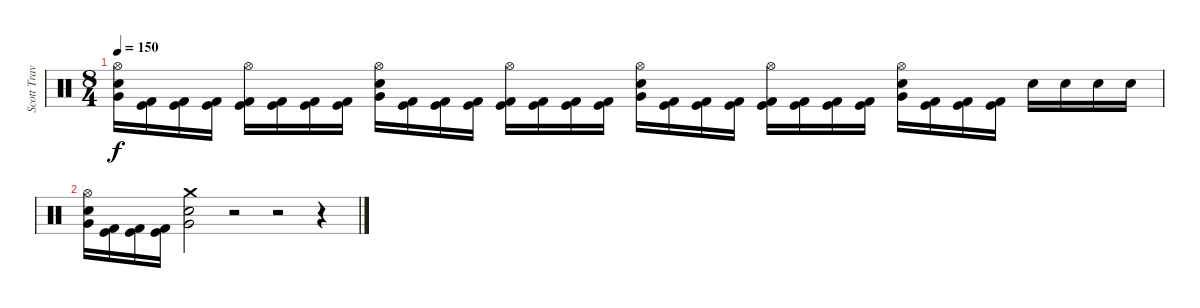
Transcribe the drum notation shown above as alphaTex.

\track ("Scott Travis" "Scott Trav") {instrument percussion}
\staff {score}
\articulation defaults
\ts (8 4)
\tempo 150
\clef neutral
\ks c
("Hi-Hat (open)" "Very Low Tom (hit)" "Electric Snare (hit)").16{dy f} ("Kick (hit)" "Kick (hit) 2").16 ("Kick (hit)" "Kick (hit) 2").16 ("Kick (hit)" "Kick (hit) 2").16 ("Hi-Hat (open)" "Kick (hit)" "Kick (hit) 2").16 ("Kick (hit)" "Kick (hit) 2").16 ("Kick (hit)" "Kick (hit) 2").16 ("Kick (hit)" "Kick (hit) 2").16 ("Hi-Hat (open)" "Very Low Tom (hit)" "Electric Snare (hit)").16 ("Kick (hit)" "Kick (hit) 2").16 ("Kick (hit)" "Kick (hit) 2").16 ("Kick (hit)" "Kick (hit) 2").16 ("Hi-Hat (open)" "Kick (hit)" "Kick (hit) 2").16 ("Kick (hit)" "Kick (hit) 2").16 ("Kick (hit)" "Kick (hit) 2").16 ("Kick (hit)" "Kick (hit) 2").16 ("Hi-Hat (open)" "Very Low Tom (hit)" "Electric Snare (hit)").16 ("Kick (hit)" "Kick (hit) 2").16 ("Kick (hit)" "Kick (hit) 2").16 ("Kick (hit)" "Kick (hit) 2").16 ("Hi-Hat (open)" "Kick (hit)" "Kick (hit) 2").16 ("Kick (hit)" "Kick (hit) 2").16 ("Kick (hit)" "Kick (hit) 2").16 ("Kick (hit)" "Kick (hit) 2").16 ("Hi-Hat (open)" "Very Low Tom (hit)" "Electric Snare (hit)").16 ("Kick (hit)" "Kick (hit) 2").16 ("Kick (hit)" "Kick (hit) 2").16 ("Kick (hit)" "Kick (hit) 2").16 "Electric Snare (hit)".16 "Electric Snare (hit)".16 "Electric Snare (hit)".16 "Electric Snare (hit)".16 |
("Hi-Hat (open)" "Very Low Tom (hit)" "Electric Snare (hit)").16 ("Kick (hit)" "Kick (hit) 2").16 ("Kick (hit)" "Kick (hit) 2").16 ("Kick (hit)" "Kick (hit) 2").16 ("Crash medium (hit)" "Very Low Tom (hit)" "Electric Snare (hit)").2 r.2 r.2 r.4
